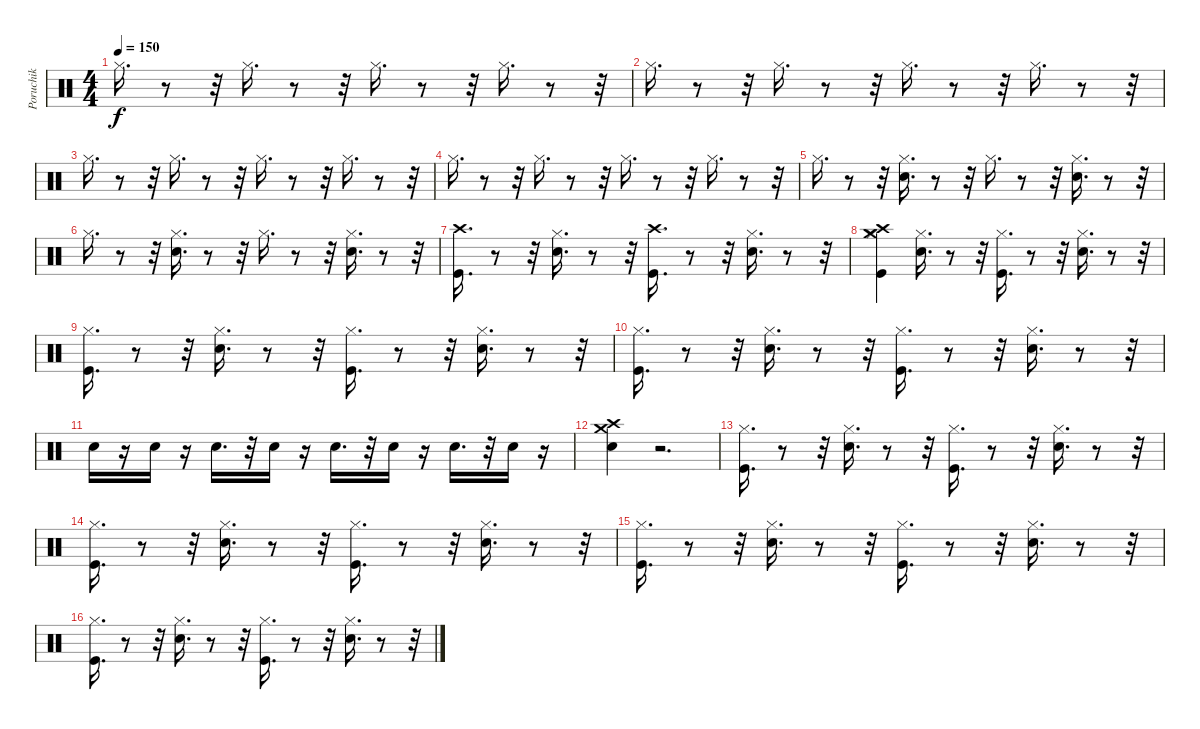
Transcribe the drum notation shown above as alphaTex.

\track ("Poruchik" "Poruchik") {instrument percussion}
\staff {score}
\articulation defaults
\ts (4 4)
\tempo 150
\clef neutral
\ks c "Hi-Hat (closed)".16{d dy f}
r.8 r.32 "Hi-Hat (closed)".16{d} r.8 r.32 "Hi-Hat (closed)".16{d} r.8 r.32 "Hi-Hat (closed)".16{d} r.8 r.32 |
"Hi-Hat (closed)".16{d} r.8 r.32 "Hi-Hat (closed)".16{d} r.8 r.32 "Hi-Hat (closed)".16{d} r.8 r.32 "Hi-Hat (closed)".16{d} r.8 r.32 |
"Hi-Hat (closed)".16{d} r.8 r.32 "Hi-Hat (closed)".16{d} r.8 r.32 "Hi-Hat (closed)".16{d} r.8 r.32 "Hi-Hat (closed)".16{d} r.8 r.32 |
"Hi-Hat (closed)".16{d} r.8 r.32 "Hi-Hat (closed)".16{d} r.8 r.32 "Hi-Hat (closed)".16{d} r.8 r.32 "Hi-Hat (closed)".16{d} r.8 r.32 |
"Hi-Hat (closed)".16{d} r.8 r.32 ("Hi-Hat (closed)" "Electric Snare (hit)").16{d} r.8 r.32 "Hi-Hat (closed)".16{d} r.8 r.32 ("Hi-Hat (closed)" "Electric Snare (hit)").16{d} r.8 r.32 |
"Hi-Hat (closed)".16{d} r.8 r.32 ("Electric Snare (hit)" "Hi-Hat (closed)").16{d} r.8 r.32 "Hi-Hat (closed)".16{d} r.8 r.32 ("Hi-Hat (closed)" "Electric Snare (hit)").16{d} r.8 r.32 |
("Kick (hit)" "Crash high (hit)").16{d} r.8 r.32 ("Hi-Hat (closed)" "Electric Snare (hit)").16{d} r.8 r.32 ("Crash high (hit)" "Kick (hit)").16{d} r.8 r.32 ("Electric Snare (hit)" "Hi-Hat (closed)").16{d} r.8 r.32 |
("Crash medium (hit)" "Hi-Hat (closed)" "Kick (hit)" "Crash high (hit)").4 ("Electric Snare (hit)" "Hi-Hat (closed)").16{d} r.8 r.32 ("Kick (hit)" "Hi-Hat (closed)").16{d} r.8 r.32 ("Hi-Hat (closed)" "Electric Snare (hit)").16{d} r.8 r.32 |
("Hi-Hat (closed)" "Kick (hit)").16{d} r.8 r.32 ("Hi-Hat (closed)" "Electric Snare (hit)").16{d} r.8 r.32 ("Kick (hit)" "Hi-Hat (closed)").16{d} r.8 r.32 ("Hi-Hat (closed)" "Electric Snare (hit)").16{d} r.8 r.32 |
("Hi-Hat (closed)" "Kick (hit)").16{d} r.8 r.32 ("Electric Snare (hit)" "Hi-Hat (closed)").16{d} r.8 r.32 ("Hi-Hat (closed)" "Kick (hit)").16{d} r.8 r.32 ("Electric Snare (hit)" "Hi-Hat (closed)").16{d} r.8 r.32 |
"Electric Snare (hit)".16 r.16 "Electric Snare (hit)".16 r.16 "Electric Snare (hit)".16{d} r.32 "Electric Snare (hit)".16 r.16 "Electric Snare (hit)".16{d} r.32 "Electric Snare (hit)".16 r.16 "Electric Snare (hit)".16{d} r.32 "Electric Snare (hit)".16 r.16 |
("Crash medium (hit)" "Electric Snare (hit)" "Crash high (hit)").4 r.2{d} |
("Kick (hit)" "Hi-Hat (closed)").16{d} r.8 r.32 ("Hi-Hat (closed)" "Electric Snare (hit)").16{d} r.8 r.32 ("Hi-Hat (closed)" "Kick (hit)").16{d} r.8 r.32 ("Hi-Hat (closed)" "Electric Snare (hit)").16{d} r.8 r.32 |
("Kick (hit)" "Hi-Hat (closed)").16{d} r.8 r.32 ("Hi-Hat (closed)" "Electric Snare (hit)").16{d} r.8 r.32 ("Kick (hit)" "Hi-Hat (closed)").16{d} r.8 r.32 ("Hi-Hat (closed)" "Electric Snare (hit)").16{d} r.8 r.32 |
("Kick (hit)" "Hi-Hat (closed)").16{d} r.8 r.32 ("Hi-Hat (closed)" "Electric Snare (hit)").16{d} r.8 r.32 ("Hi-Hat (closed)" "Kick (hit)").16{d} r.8 r.32 ("Hi-Hat (closed)" "Electric Snare (hit)").16{d} r.8 r.32 |
("Hi-Hat (closed)" "Kick (hit)").16{d} r.8 r.32 ("Hi-Hat (closed)" "Electric Snare (hit)").16{d} r.8 r.32 ("Kick (hit)" "Hi-Hat (closed)").16{d} r.8 r.32 ("Electric Snare (hit)" "Hi-Hat (closed)").16{d} r.8 r.32
